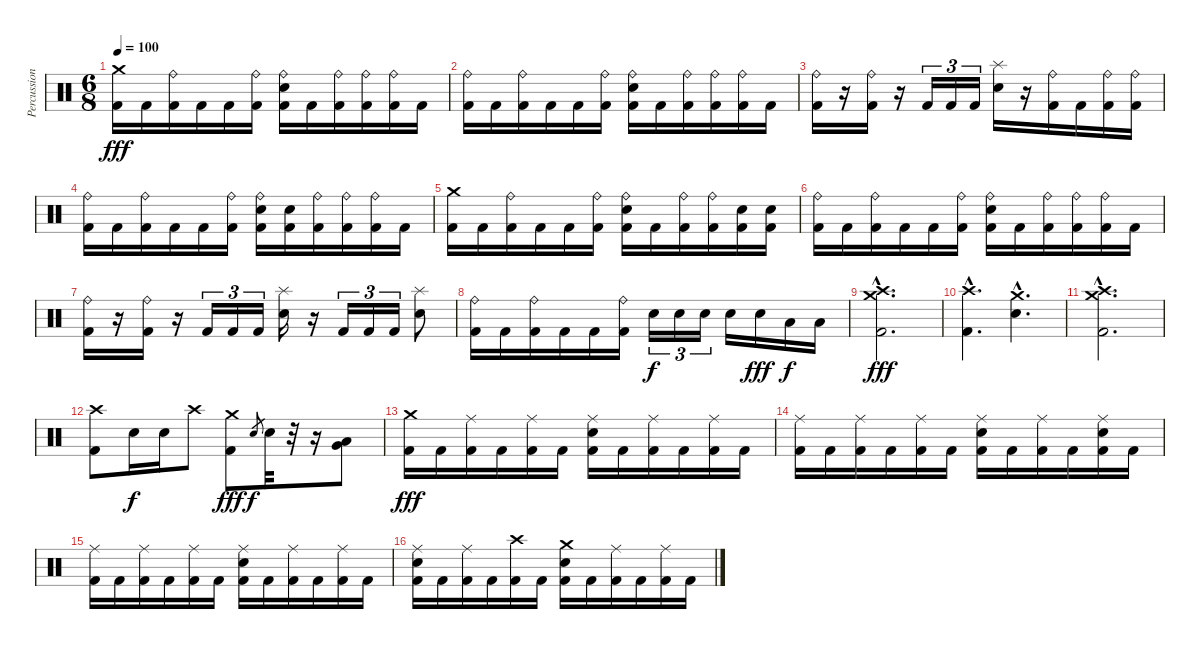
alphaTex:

\track ("Percussion" "Percussion") {instrument percussion}
\staff {score}
\articulation defaults
\ts (6 8)
\tempo 100
\clef neutral
\ks c
("Crash medium (hit)" "Kick (hit) 2").16{dy fff} "Kick (hit) 2".16 ("Ride (bell)" "Kick (hit) 2").16 "Kick (hit) 2".16 "Kick (hit) 2".16 ("Ride (bell)" "Kick (hit) 2").16 ("Ride (bell)" "Electric Snare (hit)" "Kick (hit) 2").16 "Kick (hit) 2".16 ("Ride (bell)" "Kick (hit) 2").16 ("Ride (bell)" "Kick (hit) 2").16 ("Ride (bell)" "Kick (hit) 2").16 "Kick (hit) 2".16 |
("Ride (bell)" "Kick (hit) 2").16 "Kick (hit) 2".16 ("Ride (bell)" "Kick (hit) 2").16 "Kick (hit) 2".16 "Kick (hit) 2".16 ("Ride (bell)" "Kick (hit) 2").16 ("Ride (bell)" "Electric Snare (hit)" "Kick (hit) 2").16 "Kick (hit) 2".16 ("Ride (bell)" "Kick (hit) 2").16 ("Ride (bell)" "Kick (hit) 2").16 ("Ride (bell)" "Kick (hit) 2").16 "Kick (hit) 2".16 |
("Ride (bell)" "Kick (hit) 2").16 r.16 ("Ride (bell)" "Kick (hit) 2").16 r.16 "Kick (hit) 2".16{tu (3 2)} "Kick (hit) 2".16{tu (3 2)} "Kick (hit) 2".16{tu (3 2)} ("Splash (hit)" "Electric Snare (hit)").16 r.16 ("Ride (bell)" "Kick (hit) 2").16 "Kick (hit) 2".16 ("Ride (bell)" "Kick (hit) 2").16 ("Ride (bell)" "Kick (hit) 2").16 |
("Ride (bell)" "Kick (hit) 2").16 "Kick (hit) 2".16 ("Ride (bell)" "Kick (hit) 2").16 "Kick (hit) 2".16 "Kick (hit) 2".16 ("Ride (bell)" "Kick (hit) 2").16 ("Ride (bell)" "Electric Snare (hit)" "Kick (hit) 2").16 ("Electric Snare (hit)" "Kick (hit) 2").16 ("Ride (bell)" "Kick (hit) 2").16 ("Ride (bell)" "Kick (hit) 2").16 ("Ride (bell)" "Kick (hit) 2").16 "Kick (hit) 2".16 |
("Crash medium (hit)" "Kick (hit) 2").16 "Kick (hit) 2".16 ("Ride (bell)" "Kick (hit) 2").16 "Kick (hit) 2".16 "Kick (hit) 2".16 ("Ride (bell)" "Kick (hit) 2").16 ("Ride (bell)" "Electric Snare (hit)" "Kick (hit) 2").16 "Kick (hit) 2".16 ("Ride (bell)" "Kick (hit) 2").16 ("Ride (bell)" "Kick (hit) 2").16 ("Electric Snare (hit)" "Kick (hit) 2").16 ("Electric Snare (hit)" "Kick (hit) 2").16 |
("Ride (bell)" "Kick (hit) 2").16 "Kick (hit) 2".16 ("Ride (bell)" "Kick (hit) 2").16 "Kick (hit) 2".16 "Kick (hit) 2".16 ("Ride (bell)" "Kick (hit) 2").16 ("Ride (bell)" "Electric Snare (hit)" "Kick (hit) 2").16 "Kick (hit) 2".16 ("Ride (bell)" "Kick (hit) 2").16 ("Ride (bell)" "Kick (hit) 2").16 ("Ride (bell)" "Kick (hit) 2").16 "Kick (hit) 2".16 |
("Ride (bell)" "Kick (hit) 2").16 r.16 ("Ride (bell)" "Kick (hit) 2").16 r.16 "Kick (hit) 2".16{tu (3 2)} "Kick (hit) 2".16{tu (3 2)} "Kick (hit) 2".16{tu (3 2)} ("Splash (hit)" "Electric Snare (hit)").16 r.16 "Kick (hit) 2".16{tu (3 2)} "Kick (hit) 2".16{tu (3 2)} "Kick (hit) 2".16{tu (3 2)} ("Splash (hit)" "Electric Snare (hit)").8 |
("Ride (bell)" "Kick (hit) 2").16 "Kick (hit) 2".16 ("Ride (bell)" "Kick (hit) 2").16 "Kick (hit) 2".16 "Kick (hit) 2".16 ("Ride (bell)" "Kick (hit) 2").16 "Electric Snare (hit)".16{tu (3 2) dy f} "Electric Snare (hit)".16{tu (3 2)} "Electric Snare (hit)".16{tu (3 2)} "Electric Snare (hit)".16 "Electric Snare (hit)".16{dy fff} "Low Tom (hit)".16{dy f} "Low Tom (hit)".16 |
("Crash medium (hit)"{hac} "Kick (hit) 2"{hac} "Crash high (hit)"{hac}).2{d dy fff} |
("Crash high (hit)"{hac} "Kick (hit) 2"{hac}).4{d} ("Crash medium (hit)"{hac} "Electric Snare (hit)"{hac}).4{d} |
("Crash medium (hit)"{hac} "Kick (hit) 2"{hac} "Crash high (hit)"{hac}).2{d} |
("Crash high (hit)" "Kick (hit) 2").8 "Electric Snare (hit)".16{dy f} "Electric Snare (hit)".16 "Crash high (hit)".8 ("Crash medium (hit)" "Kick (hit) 2").8{dy fff} "Electric Snare (hit)".8{gr dy f} "Electric Snare (hit)".32 r.32 r.16 ("Low Tom (hit)" "Very Low Tom (hit)").8 |
("Crash medium (hit)" "Kick (hit) 2").16{dy fff} "Kick (hit) 2".16 ("Ride (middle)" "Kick (hit) 2").16 "Kick (hit) 2".16 ("Ride (middle)" "Kick (hit) 2").16 "Kick (hit) 2".16 ("Ride (middle)" "Electric Snare (hit)" "Kick (hit) 2").16 "Kick (hit) 2".16 ("Ride (middle)" "Kick (hit) 2").16 "Kick (hit) 2".16 ("Ride (middle)" "Kick (hit) 2").16 "Kick (hit) 2".16 |
("Ride (middle)" "Kick (hit) 2").16 "Kick (hit) 2".16 ("Ride (middle)" "Kick (hit) 2").16 "Kick (hit) 2".16 ("Ride (middle)" "Kick (hit) 2").16 "Kick (hit) 2".16 ("Ride (middle)" "Electric Snare (hit)" "Kick (hit) 2").16 "Kick (hit) 2".16 ("Ride (middle)" "Kick (hit) 2").16 "Kick (hit) 2".16 ("Ride (middle)" "Electric Snare (hit)" "Kick (hit) 2").16 "Kick (hit) 2".16 |
("Ride (middle)" "Kick (hit) 2").16 "Kick (hit) 2".16 ("Ride (middle)" "Kick (hit) 2").16 "Kick (hit) 2".16 ("Ride (middle)" "Kick (hit) 2").16 "Kick (hit) 2".16 ("Ride (middle)" "Electric Snare (hit)" "Kick (hit) 2").16 "Kick (hit) 2".16 ("Ride (middle)" "Kick (hit) 2").16 "Kick (hit) 2".16 ("Ride (middle)" "Kick (hit) 2").16 "Kick (hit) 2".16 |
("Ride (middle)" "Electric Snare (hit)" "Kick (hit) 2").16 "Kick (hit) 2".16 ("Ride (middle)" "Kick (hit) 2").16 "Kick (hit) 2".16 ("Crash high (hit)" "Kick (hit) 2").16 "Kick (hit) 2".16 ("Crash medium (hit)" "Electric Snare (hit)" "Kick (hit) 2").16 "Kick (hit) 2".16 ("Ride (middle)" "Kick (hit) 2").16 "Kick (hit) 2".16 ("Ride (middle)" "Kick (hit) 2").16 "Kick (hit) 2".16
